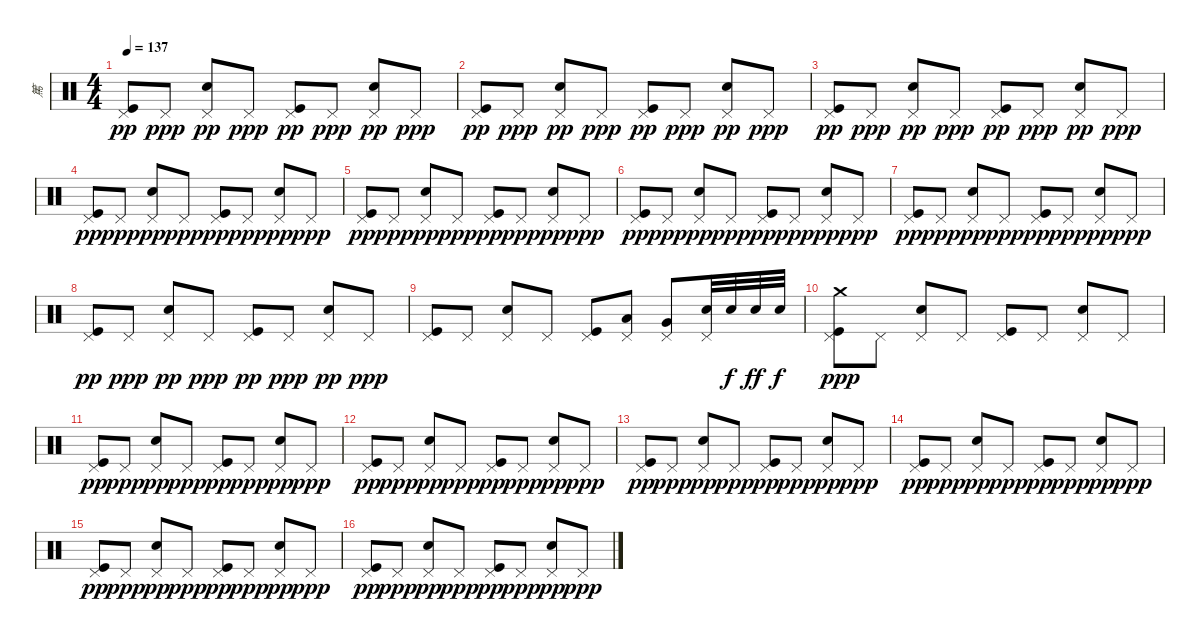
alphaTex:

\track ("篤" "篤") {instrument percussion}
\staff {score}
\articulation defaults
\ts (4 4)
\tempo 137
\clef neutral
\ks c
("Kick (hit)" "Pedal Hi-Hat (hit)").8{dy pp} "Pedal Hi-Hat (hit)".8{dy ppp} ("Snare (hit) 2" "Pedal Hi-Hat (hit)").8{dy pp} "Pedal Hi-Hat (hit)".8{dy ppp} ("Kick (hit)" "Pedal Hi-Hat (hit)").8{dy pp} "Pedal Hi-Hat (hit)".8{dy ppp} ("Snare (hit) 2" "Pedal Hi-Hat (hit)").8{dy pp} "Pedal Hi-Hat (hit)".8{dy ppp} |
("Kick (hit)" "Pedal Hi-Hat (hit)").8{dy pp} "Pedal Hi-Hat (hit)".8{dy ppp} ("Snare (hit) 2" "Pedal Hi-Hat (hit)").8{dy pp} "Pedal Hi-Hat (hit)".8{dy ppp} ("Kick (hit)" "Pedal Hi-Hat (hit)").8{dy pp} "Pedal Hi-Hat (hit)".8{dy ppp} ("Snare (hit) 2" "Pedal Hi-Hat (hit)").8{dy pp} "Pedal Hi-Hat (hit)".8{dy ppp} |
("Kick (hit)" "Pedal Hi-Hat (hit)").8{dy pp} "Pedal Hi-Hat (hit)".8{dy ppp} ("Snare (hit) 2" "Pedal Hi-Hat (hit)").8{dy pp} "Pedal Hi-Hat (hit)".8{dy ppp} ("Kick (hit)" "Pedal Hi-Hat (hit)").8{dy pp} "Pedal Hi-Hat (hit)".8{dy ppp} ("Snare (hit) 2" "Pedal Hi-Hat (hit)").8{dy pp} "Pedal Hi-Hat (hit)".8{dy ppp} |
("Kick (hit)" "Pedal Hi-Hat (hit)").8{dy pp} "Pedal Hi-Hat (hit)".8{dy ppp} ("Snare (hit) 2" "Pedal Hi-Hat (hit)").8{dy pp} "Pedal Hi-Hat (hit)".8{dy ppp} ("Kick (hit)" "Pedal Hi-Hat (hit)").8{dy pp} "Pedal Hi-Hat (hit)".8{dy ppp} ("Snare (hit) 2" "Pedal Hi-Hat (hit)").8{dy pp} "Pedal Hi-Hat (hit)".8{dy ppp} |
("Kick (hit)" "Pedal Hi-Hat (hit)").8{dy pp} "Pedal Hi-Hat (hit)".8{dy ppp} ("Snare (hit) 2" "Pedal Hi-Hat (hit)").8{dy pp} "Pedal Hi-Hat (hit)".8{dy ppp} ("Kick (hit)" "Pedal Hi-Hat (hit)").8{dy pp} "Pedal Hi-Hat (hit)".8{dy ppp} ("Snare (hit) 2" "Pedal Hi-Hat (hit)").8{dy pp} "Pedal Hi-Hat (hit)".8{dy ppp} |
("Kick (hit)" "Pedal Hi-Hat (hit)").8{dy pp} "Pedal Hi-Hat (hit)".8{dy ppp} ("Snare (hit) 2" "Pedal Hi-Hat (hit)").8{dy pp} "Pedal Hi-Hat (hit)".8{dy ppp} ("Kick (hit)" "Pedal Hi-Hat (hit)").8{dy pp} "Pedal Hi-Hat (hit)".8{dy ppp} ("Snare (hit) 2" "Pedal Hi-Hat (hit)").8{dy pp} "Pedal Hi-Hat (hit)".8{dy ppp} |
("Kick (hit)" "Pedal Hi-Hat (hit)").8{dy pp} "Pedal Hi-Hat (hit)".8{dy ppp} ("Snare (hit) 2" "Pedal Hi-Hat (hit)").8{dy pp} "Pedal Hi-Hat (hit)".8{dy ppp} ("Kick (hit)" "Pedal Hi-Hat (hit)").8{dy pp} "Pedal Hi-Hat (hit)".8{dy ppp} ("Snare (hit) 2" "Pedal Hi-Hat (hit)").8{dy pp} "Pedal Hi-Hat (hit)".8{dy ppp} |
("Kick (hit)" "Pedal Hi-Hat (hit)").8{dy pp} "Pedal Hi-Hat (hit)".8{dy ppp} ("Snare (hit) 2" "Pedal Hi-Hat (hit)").8{dy pp} "Pedal Hi-Hat (hit)".8{dy ppp} ("Kick (hit)" "Pedal Hi-Hat (hit)").8{dy pp} "Pedal Hi-Hat (hit)".8{dy ppp} ("Snare (hit) 2" "Pedal Hi-Hat (hit)").8{dy pp} "Pedal Hi-Hat (hit)".8{dy ppp} |
("Kick (hit)" "Pedal Hi-Hat (hit)").8 "Pedal Hi-Hat (hit)".8 ("Snare (hit) 2" "Pedal Hi-Hat (hit)").8 "Pedal Hi-Hat (hit)".8 ("Kick (hit)" "Pedal Hi-Hat (hit)").8 ("Low Tom (hit)" "Pedal Hi-Hat (hit)").8 ("Very Low Tom (hit)" "Pedal Hi-Hat (hit)").8 ("Snare (hit) 2" "Pedal Hi-Hat (hit)").32 "Snare (hit) 2".32{dy f} "Snare (hit) 2".32{dy ff} "Snare (hit) 2".32{dy f} |
("Crash medium (hit)" "Kick (hit)" "Pedal Hi-Hat (hit)").8{dy ppp} "Pedal Hi-Hat (hit)".8 ("Snare (hit) 2" "Pedal Hi-Hat (hit)").8 "Pedal Hi-Hat (hit)".8 ("Kick (hit)" "Pedal Hi-Hat (hit)").8 "Pedal Hi-Hat (hit)".8 ("Snare (hit) 2" "Pedal Hi-Hat (hit)").8 "Pedal Hi-Hat (hit)".8 |
("Kick (hit)" "Pedal Hi-Hat (hit)").8{dy pp} "Pedal Hi-Hat (hit)".8{dy ppp} ("Snare (hit) 2" "Pedal Hi-Hat (hit)").8{dy pp} "Pedal Hi-Hat (hit)".8{dy ppp} ("Kick (hit)" "Pedal Hi-Hat (hit)").8{dy pp} "Pedal Hi-Hat (hit)".8{dy ppp} ("Snare (hit) 2" "Pedal Hi-Hat (hit)").8{dy pp} "Pedal Hi-Hat (hit)".8{dy ppp} |
("Kick (hit)" "Pedal Hi-Hat (hit)").8{dy pp} "Pedal Hi-Hat (hit)".8{dy ppp} ("Snare (hit) 2" "Pedal Hi-Hat (hit)").8{dy pp} "Pedal Hi-Hat (hit)".8{dy ppp} ("Kick (hit)" "Pedal Hi-Hat (hit)").8{dy pp} "Pedal Hi-Hat (hit)".8{dy ppp} ("Snare (hit) 2" "Pedal Hi-Hat (hit)").8{dy pp} "Pedal Hi-Hat (hit)".8{dy ppp} |
("Kick (hit)" "Pedal Hi-Hat (hit)").8{dy pp} "Pedal Hi-Hat (hit)".8{dy ppp} ("Snare (hit) 2" "Pedal Hi-Hat (hit)").8{dy pp} "Pedal Hi-Hat (hit)".8{dy ppp} ("Kick (hit)" "Pedal Hi-Hat (hit)").8{dy pp} "Pedal Hi-Hat (hit)".8{dy ppp} ("Snare (hit) 2" "Pedal Hi-Hat (hit)").8{dy pp} "Pedal Hi-Hat (hit)".8{dy ppp} |
("Kick (hit)" "Pedal Hi-Hat (hit)").8{dy pp} "Pedal Hi-Hat (hit)".8{dy ppp} ("Snare (hit) 2" "Pedal Hi-Hat (hit)").8{dy pp} "Pedal Hi-Hat (hit)".8{dy ppp} ("Kick (hit)" "Pedal Hi-Hat (hit)").8{dy pp} "Pedal Hi-Hat (hit)".8{dy ppp} ("Snare (hit) 2" "Pedal Hi-Hat (hit)").8{dy pp} "Pedal Hi-Hat (hit)".8{dy ppp} |
("Kick (hit)" "Pedal Hi-Hat (hit)").8{dy pp} "Pedal Hi-Hat (hit)".8{dy ppp} ("Snare (hit) 2" "Pedal Hi-Hat (hit)").8{dy pp} "Pedal Hi-Hat (hit)".8{dy ppp} ("Kick (hit)" "Pedal Hi-Hat (hit)").8{dy pp} "Pedal Hi-Hat (hit)".8{dy ppp} ("Snare (hit) 2" "Pedal Hi-Hat (hit)").8{dy pp} "Pedal Hi-Hat (hit)".8{dy ppp} |
("Kick (hit)" "Pedal Hi-Hat (hit)").8{dy pp} "Pedal Hi-Hat (hit)".8{dy ppp} ("Snare (hit) 2" "Pedal Hi-Hat (hit)").8{dy pp} "Pedal Hi-Hat (hit)".8{dy ppp} ("Kick (hit)" "Pedal Hi-Hat (hit)").8{dy pp} "Pedal Hi-Hat (hit)".8{dy ppp} ("Snare (hit) 2" "Pedal Hi-Hat (hit)").8{dy pp} "Pedal Hi-Hat (hit)".8{dy ppp}
